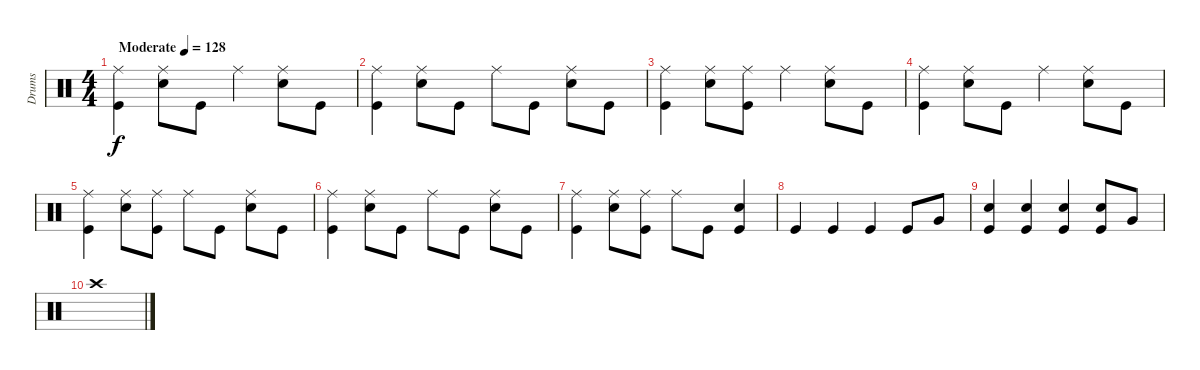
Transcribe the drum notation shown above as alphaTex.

\track ("Drums" "Drums") {instrument percussion}
\staff {score}
\articulation defaults
\ts (4 4)
\tempo (128 "Moderate")
\clef neutral
\ks c
("Ride (middle)" "Kick (hit)").4{dy f} ("Ride (middle)" "Snare (hit) 2").8 "Kick (hit)".8 "Ride (middle)".4 ("Ride (middle)" "Snare (hit) 2").8 "Kick (hit)".8 |
("Ride (middle)" "Kick (hit)").4 ("Ride (middle)" "Snare (hit) 2").8 "Kick (hit)".8 "Ride (middle)".8 "Kick (hit)".8 ("Ride (middle)" "Snare (hit) 2").8 "Kick (hit)".8 |
("Ride (middle)" "Kick (hit)").4 ("Ride (middle)" "Snare (hit) 2").8 ("Ride (middle)" "Kick (hit)").8 "Ride (middle)".4 ("Ride (middle)" "Snare (hit) 2").8 "Kick (hit)".8 |
("Ride (middle)" "Kick (hit)").4 ("Ride (middle)" "Snare (hit) 2").8 "Kick (hit)".8 "Ride (middle)".4 ("Ride (middle)" "Snare (hit) 2").8 "Kick (hit)".8 |
("Ride (middle)" "Kick (hit)").4 ("Ride (middle)" "Snare (hit) 2").8 ("Ride (middle)" "Kick (hit)").8 "Ride (middle)".8 "Kick (hit)".8 ("Ride (middle)" "Snare (hit) 2").8 "Kick (hit)".8 |
("Ride (middle)" "Kick (hit)").4 ("Ride (middle)" "Snare (hit) 2").8 "Kick (hit)".8 "Ride (middle)".8 "Kick (hit)".8 ("Ride (middle)" "Snare (hit) 2").8 "Kick (hit)".8 |
("Ride (middle)" "Kick (hit)").4 ("Ride (middle)" "Snare (hit) 2").8 ("Ride (middle)" "Kick (hit)").8 "Ride (middle)".8 "Kick (hit)".8 ("Kick (hit)" "Snare (hit) 2").4 |
"Kick (hit)".4 "Kick (hit)".4 "Kick (hit)".4 "Kick (hit)".8 "Very Low Tom (hit)".8 |
("Snare (hit) 2" "Kick (hit)").4 ("Snare (hit) 2" "Kick (hit)").4 ("Snare (hit) 2" "Kick (hit)").4 ("Snare (hit) 2" "Kick (hit)").8 "Very Low Tom (hit)".8 |
"Crash high (hit)".1
